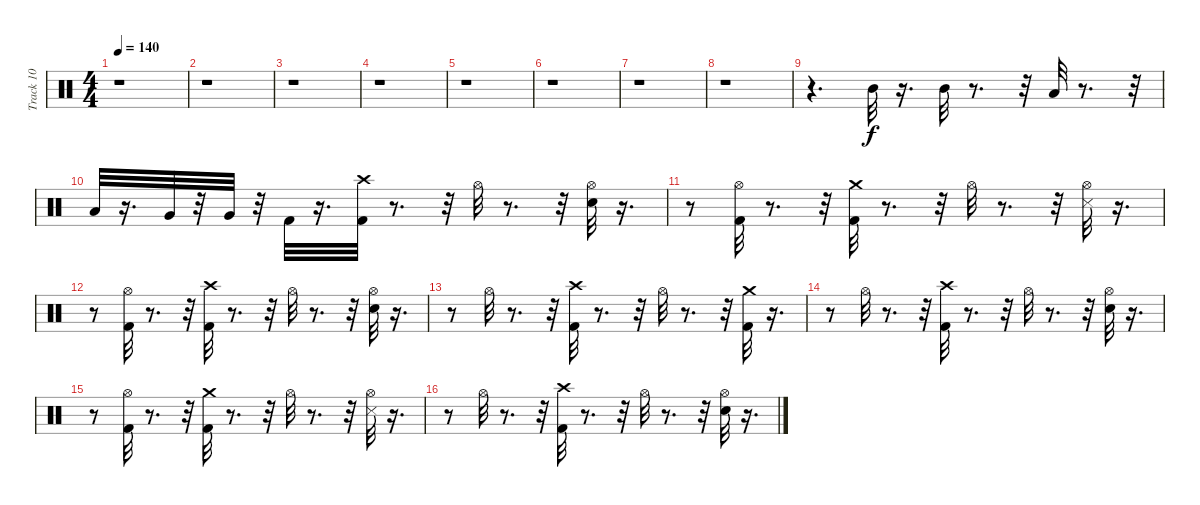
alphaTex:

\track ("Track 10" "Track 10") {instrument percussion}
\staff {score}
\articulation defaults
\ts (4 4)
\tempo 140
\clef neutral
\ks c
r.1{dy f} |
r.1 |
r.1 |
r.1 |
r.1 |
r.1 |
r.1 |
r.1 |
r.4{d} "Mid Tom (hit)".32 r.16{d} "Mid Tom (hit)".32 r.8{d} r.32 "Low Tom (hit)".32 r.8{d} r.32 |
"Low Tom (hit)".32 r.16{d} "Very Low Tom (hit)".32 r.32 "Very Low Tom (hit)".32 r.32 "Kick (hit) 2".32 r.16{d} ("Crash high (hit)" "Kick (hit) 2").32 r.8{d} r.32 "Hi-Hat (open)".32 r.8{d} r.32 ("Electric Snare (hit)" "Hi-Hat (open)").32 r.16{d} |
r.8 ("Hi-Hat (open)" "Kick (hit) 2").32 r.8{d} r.32 ("Kick (hit) 2" "Crash medium (hit)").32 r.8{d} r.32 "Hi-Hat (open)".32 r.8{d} r.32 ("Snare (side stick) 3" "Hi-Hat (open)").32 r.16{d} |
r.8 ("Kick (hit) 2" "Hi-Hat (open)").32 r.8{d} r.32 ("Crash high (hit)" "Kick (hit) 2").32 r.8{d} r.32 "Hi-Hat (open)".32 r.8{d} r.32 ("Hi-Hat (open)" "Electric Snare (hit)").32 r.16{d} |
r.8 "Hi-Hat (open)".32 r.8{d} r.32 ("Crash high (hit)" "Kick (hit) 2").32 r.8{d} r.32 "Hi-Hat (open)".32 r.8{d} r.32 ("Kick (hit) 2" "Crash medium (hit)").32 r.16{d} |
r.8 "Hi-Hat (open)".32 r.8{d} r.32 ("Kick (hit) 2" "Crash high (hit)").32 r.8{d} r.32 "Hi-Hat (open)".32 r.8{d} r.32 ("Electric Snare (hit)" "Hi-Hat (open)").32 r.16{d} |
r.8 ("Hi-Hat (open)" "Kick (hit) 2").32 r.8{d} r.32 ("Kick (hit) 2" "Crash medium (hit)").32 r.8{d} r.32 "Hi-Hat (open)".32 r.8{d} r.32 ("Hi-Hat (open)" "Snare (side stick) 3").32 r.16{d} |
r.8 "Hi-Hat (open)".32 r.8{d} r.32 ("Crash high (hit)" "Kick (hit) 2").32 r.8{d} r.32 "Hi-Hat (open)".32 r.8{d} r.32 ("Electric Snare (hit)" "Hi-Hat (open)").32 r.16{d}
